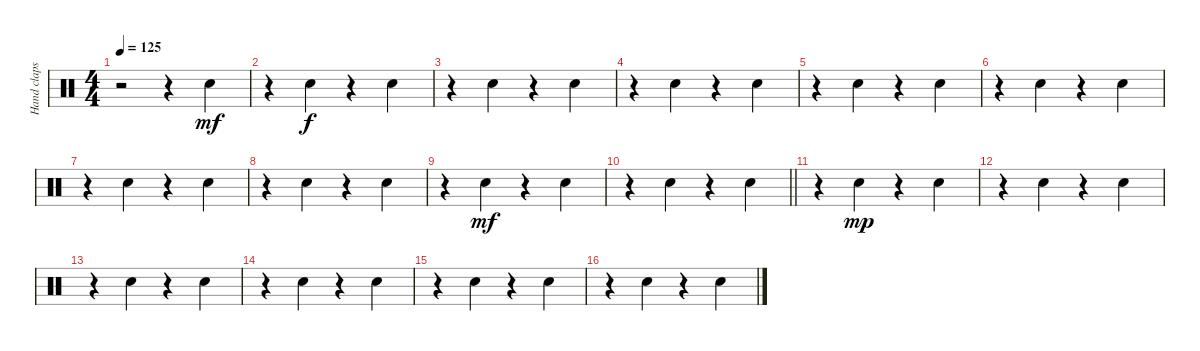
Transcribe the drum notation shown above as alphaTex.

\track ("Hand claps" "Hand claps") {instrument percussion}
\staff {score}
\articulation defaults
\ts (4 4)
\tempo 125
\clef neutral
\ks c
r.2{dy mf} r.4 "Hand Clap (hit)".4 |
r.4 "Hand Clap (hit)".4{dy f} r.4 "Hand Clap (hit)".4 |
r.4 "Hand Clap (hit)".4 r.4 "Hand Clap (hit)".4 |
r.4 "Hand Clap (hit)".4 r.4 "Hand Clap (hit)".4 |
r.4 "Hand Clap (hit)".4 r.4 "Hand Clap (hit)".4 |
r.4 "Hand Clap (hit)".4 r.4 "Hand Clap (hit)".4 |
r.4 "Hand Clap (hit)".4 r.4 "Hand Clap (hit)".4 |
r.4 "Hand Clap (hit)".4 r.4 "Hand Clap (hit)".4 |
r.4 "Hand Clap (hit)".4{dy mf} r.4 "Hand Clap (hit)".4 |
\barLineRight lightlight
r.4 "Hand Clap (hit)".4 r.4 "Hand Clap (hit)".4 |
r.4 "Hand Clap (hit)".4{dy mp} r.4 "Hand Clap (hit)".4 |
r.4 "Hand Clap (hit)".4 r.4 "Hand Clap (hit)".4 |
r.4 "Hand Clap (hit)".4 r.4 "Hand Clap (hit)".4 |
r.4 "Hand Clap (hit)".4 r.4 "Hand Clap (hit)".4 |
r.4 "Hand Clap (hit)".4 r.4 "Hand Clap (hit)".4 |
r.4 "Hand Clap (hit)".4 r.4 "Hand Clap (hit)".4
